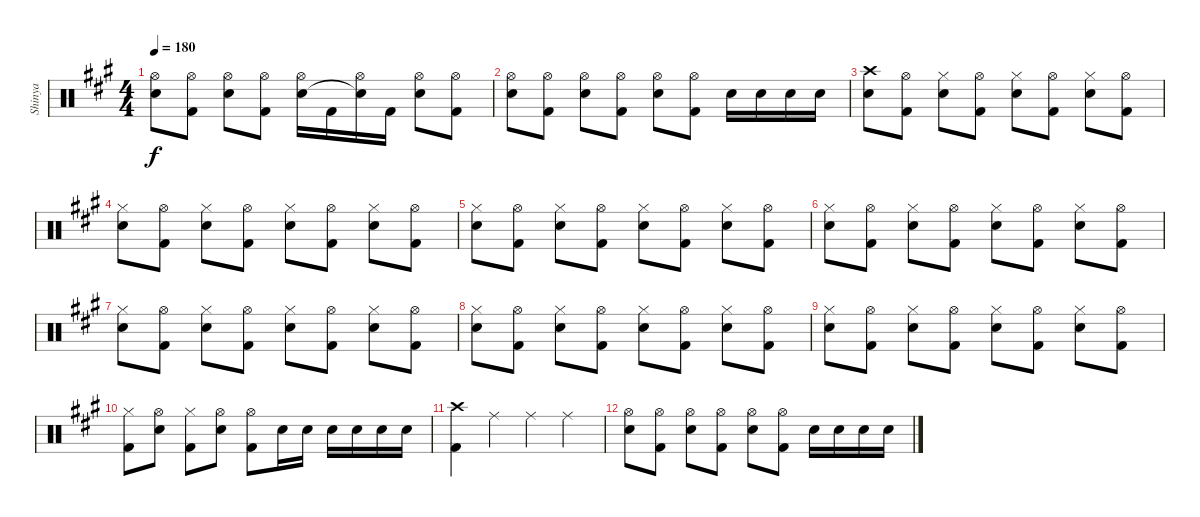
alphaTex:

\track ("Shinya" "Shinya") {instrument percussion}
\staff {score}
\articulation defaults
\ts (4 4)
\tempo 180
\clef neutral
\ks a
("Hi-Hat (open)" "Electric Snare (hit)").8{dy f} ("Hi-Hat (open)" "Kick (hit) 2").8 ("Hi-Hat (open)" "Electric Snare (hit)").8 ("Hi-Hat (open)" "Kick (hit) 2").8 ("Hi-Hat (open)" "Electric Snare (hit)").16 "Kick (hit) 2".16 ("Hi-Hat (open)" "Snare (hit)"{t}).16 "Kick (hit) 2".16 ("Hi-Hat (open)" "Electric Snare (hit)").8 ("Hi-Hat (open)" "Kick (hit) 2").8 |
("Hi-Hat (open)" "Electric Snare (hit)").8 ("Hi-Hat (open)" "Kick (hit) 2").8 ("Hi-Hat (open)" "Electric Snare (hit)").8 ("Hi-Hat (open)" "Kick (hit) 2").8 ("Hi-Hat (open)" "Electric Snare (hit)").8 ("Hi-Hat (open)" "Kick (hit) 2").8 "Electric Snare (hit)".16 "Electric Snare (hit)".16 "Electric Snare (hit)".16 "Electric Snare (hit)".16 |
("Crash high (hit)" "Electric Snare (hit)").8 ("Hi-Hat (open)" "Kick (hit) 2").8 ("Hi-Hat (closed)" "Electric Snare (hit)").8 ("Hi-Hat (open)" "Kick (hit) 2").8 ("Hi-Hat (closed)" "Electric Snare (hit)").8 ("Hi-Hat (open)" "Kick (hit) 2").8 ("Hi-Hat (closed)" "Electric Snare (hit)").8 ("Hi-Hat (open)" "Kick (hit) 2").8 |
("Hi-Hat (closed)" "Electric Snare (hit)").8 ("Hi-Hat (open)" "Kick (hit) 2").8 ("Hi-Hat (closed)" "Electric Snare (hit)").8 ("Hi-Hat (open)" "Kick (hit) 2").8 ("Hi-Hat (closed)" "Electric Snare (hit)").8 ("Hi-Hat (open)" "Kick (hit) 2").8 ("Hi-Hat (closed)" "Electric Snare (hit)").8 ("Hi-Hat (open)" "Kick (hit) 2").8 |
("Hi-Hat (closed)" "Electric Snare (hit)").8 ("Hi-Hat (open)" "Kick (hit) 2").8 ("Hi-Hat (closed)" "Electric Snare (hit)").8 ("Hi-Hat (open)" "Kick (hit) 2").8 ("Hi-Hat (closed)" "Electric Snare (hit)").8 ("Hi-Hat (open)" "Kick (hit) 2").8 ("Hi-Hat (closed)" "Electric Snare (hit)").8 ("Hi-Hat (open)" "Kick (hit) 2").8 |
("Hi-Hat (closed)" "Electric Snare (hit)").8 ("Hi-Hat (open)" "Kick (hit) 2").8 ("Hi-Hat (closed)" "Electric Snare (hit)").8 ("Hi-Hat (open)" "Kick (hit) 2").8 ("Hi-Hat (closed)" "Electric Snare (hit)").8 ("Hi-Hat (open)" "Kick (hit) 2").8 ("Hi-Hat (closed)" "Electric Snare (hit)").8 ("Hi-Hat (open)" "Kick (hit) 2").8 |
("Hi-Hat (closed)" "Electric Snare (hit)").8 ("Hi-Hat (open)" "Kick (hit) 2").8 ("Hi-Hat (closed)" "Electric Snare (hit)").8 ("Hi-Hat (open)" "Kick (hit) 2").8 ("Hi-Hat (closed)" "Electric Snare (hit)").8 ("Hi-Hat (open)" "Kick (hit) 2").8 ("Hi-Hat (closed)" "Electric Snare (hit)").8 ("Hi-Hat (open)" "Kick (hit) 2").8 |
("Hi-Hat (closed)" "Electric Snare (hit)").8 ("Hi-Hat (open)" "Kick (hit) 2").8 ("Hi-Hat (closed)" "Electric Snare (hit)").8 ("Hi-Hat (open)" "Kick (hit) 2").8 ("Hi-Hat (closed)" "Electric Snare (hit)").8 ("Hi-Hat (open)" "Kick (hit) 2").8 ("Hi-Hat (closed)" "Electric Snare (hit)").8 ("Hi-Hat (open)" "Kick (hit) 2").8 |
("Hi-Hat (closed)" "Electric Snare (hit)").8 ("Hi-Hat (open)" "Kick (hit) 2").8 ("Hi-Hat (closed)" "Electric Snare (hit)").8 ("Hi-Hat (open)" "Kick (hit) 2").8 ("Hi-Hat (closed)" "Electric Snare (hit)").8 ("Hi-Hat (open)" "Kick (hit) 2").8 ("Hi-Hat (closed)" "Electric Snare (hit)").8 ("Hi-Hat (open)" "Kick (hit) 2").8 |
("Hi-Hat (closed)" "Kick (hit) 2").8 ("Hi-Hat (open)" "Electric Snare (hit)").8 ("Hi-Hat (closed)" "Kick (hit) 2").8 ("Hi-Hat (open)" "Electric Snare (hit)").8 ("Hi-Hat (open)" "Kick (hit) 2").8 "Electric Snare (hit)".16 "Electric Snare (hit)".16 "Electric Snare (hit)".16 "Electric Snare (hit)".16 "Electric Snare (hit)".16 "Electric Snare (hit)".16 |
("Crash high (hit)" "Kick (hit) 2").4 "Ride (middle)".4 "Ride (middle)".4 "Ride (middle)".4 |
("Hi-Hat (open)" "Electric Snare (hit)").8 ("Hi-Hat (open)" "Kick (hit) 2").8 ("Hi-Hat (open)" "Electric Snare (hit)").8 ("Hi-Hat (open)" "Kick (hit) 2").8 ("Hi-Hat (open)" "Electric Snare (hit)").8 ("Hi-Hat (open)" "Kick (hit) 2").8 "Electric Snare (hit)".16 "Electric Snare (hit)".16 "Electric Snare (hit)".16 "Electric Snare (hit)".16
